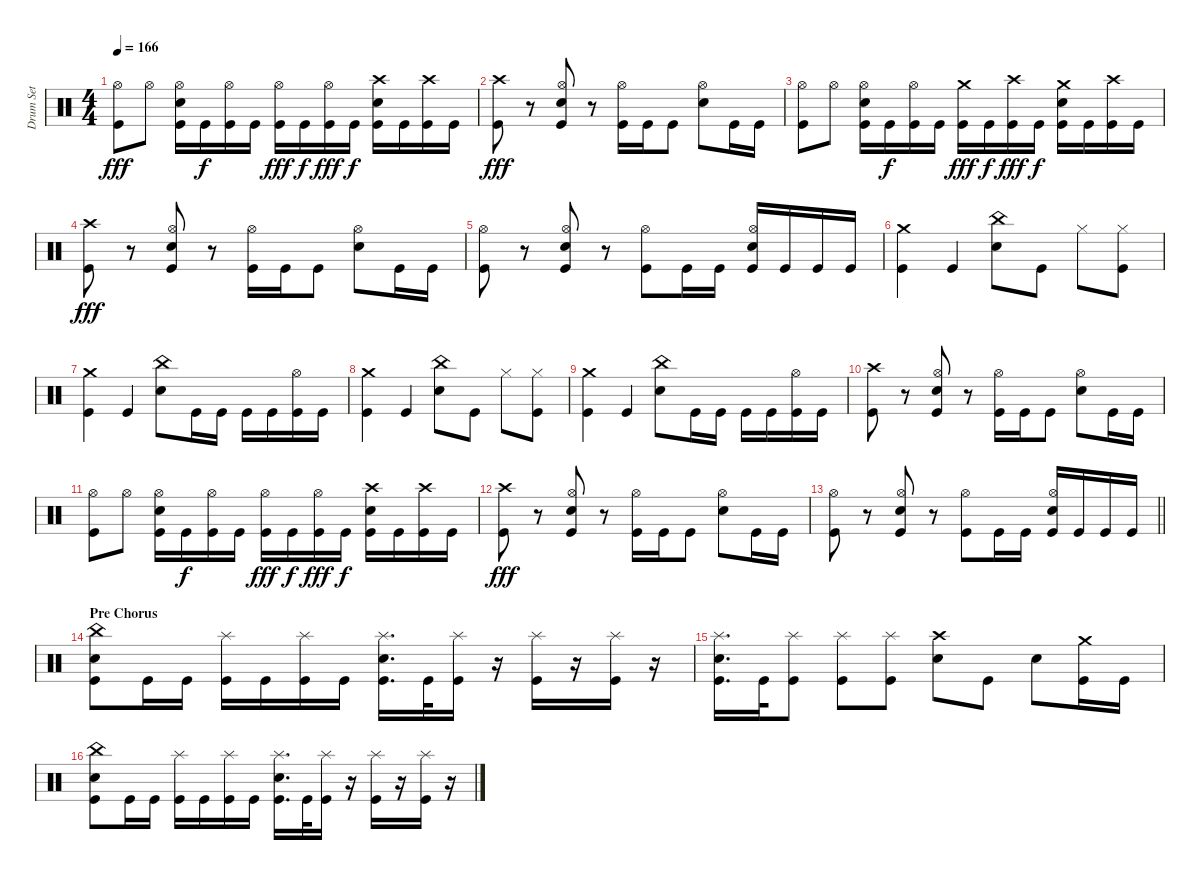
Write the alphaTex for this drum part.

\track ("Drum Set" "Drum Set") {instrument percussion}
\staff {score}
\articulation defaults
\ts (4 4)
\tempo 166
\clef neutral
\ks c
("Kick (hit)" "Hi-Hat (open)").8{dy fff} "Hi-Hat (open)".8 ("Electric Snare (hit)" "Kick (hit)" "Hi-Hat (open)").16 "Kick (hit)".16{dy f} ("Kick (hit)" "Hi-Hat (open)").16 "Kick (hit)".16 ("Kick (hit)" "Hi-Hat (open)").16{dy fff} "Kick (hit)".16{dy f} ("Kick (hit)" "Hi-Hat (open)").16{dy fff} "Kick (hit)".16{dy f} ("Electric Snare (hit)" "Kick (hit)" "Crash high (hit)").16 "Kick (hit)".16 ("Kick (hit)" "Crash high (hit)").16 "Kick (hit)".16 |
("Kick (hit)" "Crash high (hit)").8{dy fff} r.8 ("Electric Snare (hit)" "Kick (hit)" "Hi-Hat (open)").8 r.8 ("Kick (hit)" "Hi-Hat (open)").16 "Kick (hit)".16 "Kick (hit)".8 ("Electric Snare (hit)" "Hi-Hat (open)").8 "Kick (hit)".16 "Kick (hit)".16 |
("Kick (hit)" "Hi-Hat (open)").8 "Hi-Hat (open)".8 ("Electric Snare (hit)" "Kick (hit)" "Hi-Hat (open)").16 "Kick (hit)".16{dy f} ("Kick (hit)" "Hi-Hat (open)").16 "Kick (hit)".16 ("Kick (hit)" "Crash medium (hit)").16{dy fff} "Kick (hit)".16{dy f} ("Kick (hit)" "Crash high (hit)").16{dy fff} "Kick (hit)".16{dy f} ("Electric Snare (hit)" "Kick (hit)" "Crash medium (hit)").16 "Kick (hit)".16 ("Kick (hit)" "Crash high (hit)").16 "Kick (hit)".16 |
("Kick (hit)" "Crash high (hit)").8{dy fff} r.8 ("Electric Snare (hit)" "Kick (hit)" "Hi-Hat (open)").8 r.8 ("Kick (hit)" "Hi-Hat (open)").16 "Kick (hit)".16 "Kick (hit)".8 ("Electric Snare (hit)" "Hi-Hat (open)").8 "Kick (hit)".16 "Kick (hit)".16 |
("Kick (hit)" "Hi-Hat (open)").8 r.8 ("Electric Snare (hit)" "Kick (hit)" "Hi-Hat (open)").8 r.8 ("Kick (hit)" "Hi-Hat (open)").8 "Kick (hit)".16 "Kick (hit)".16 ("Electric Snare (hit)" "Kick (hit)" "Hi-Hat (open)").16 "Kick (hit)".16 "Kick (hit)".16 "Kick (hit)".16 |
("Kick (hit)" "Crash medium (hit)").4 "Kick (hit)".4 ("Electric Snare (hit)" "China (hit)").8 "Kick (hit)".8 "Hi-Hat (closed)".8 ("Kick (hit)" "Hi-Hat (closed)").8 |
("Kick (hit)" "Crash medium (hit)").4 "Kick (hit)".4 ("Electric Snare (hit)" "China (hit)").8 "Kick (hit)".16 "Kick (hit)".16 "Kick (hit)".16 "Kick (hit)".16 ("Kick (hit)" "Hi-Hat (open)").16 "Kick (hit)".16 |
("Kick (hit)" "Crash medium (hit)").4 "Kick (hit)".4 ("Electric Snare (hit)" "China (hit)").8 "Kick (hit)".8 "Hi-Hat (closed)".8 ("Kick (hit)" "Hi-Hat (closed)").8 |
("Kick (hit)" "Crash medium (hit)").4 "Kick (hit)".4 ("Electric Snare (hit)" "China (hit)").8 "Kick (hit)".16 "Kick (hit)".16 "Kick (hit)".16 "Kick (hit)".16 ("Kick (hit)" "Hi-Hat (open)").16 "Kick (hit)".16 |
("Kick (hit)" "Crash high (hit)").8 r.8 ("Electric Snare (hit)" "Kick (hit)" "Hi-Hat (open)").8 r.8 ("Kick (hit)" "Hi-Hat (open)").16 "Kick (hit)".16 "Kick (hit)".8 ("Electric Snare (hit)" "Hi-Hat (open)").8 "Kick (hit)".16 "Kick (hit)".16 |
("Kick (hit)" "Hi-Hat (open)").8 "Hi-Hat (open)".8 ("Electric Snare (hit)" "Kick (hit)" "Hi-Hat (open)").16 "Kick (hit)".16{dy f} ("Kick (hit)" "Hi-Hat (open)").16 "Kick (hit)".16 ("Kick (hit)" "Hi-Hat (open)").16{dy fff} "Kick (hit)".16{dy f} ("Kick (hit)" "Hi-Hat (open)").16{dy fff} "Kick (hit)".16{dy f} ("Electric Snare (hit)" "Kick (hit)" "Crash high (hit)").16 "Kick (hit)".16 ("Kick (hit)" "Crash high (hit)").16 "Kick (hit)".16 |
("Kick (hit)" "Crash high (hit)").8{dy fff} r.8 ("Electric Snare (hit)" "Kick (hit)" "Hi-Hat (open)").8 r.8 ("Kick (hit)" "Hi-Hat (open)").16 "Kick (hit)".16 "Kick (hit)".8 ("Electric Snare (hit)" "Hi-Hat (open)").8 "Kick (hit)".16 "Kick (hit)".16 |
\barLineRight lightlight
("Kick (hit)" "Hi-Hat (open)").8 r.8 ("Electric Snare (hit)" "Kick (hit)" "Hi-Hat (open)").8 r.8 ("Kick (hit)" "Hi-Hat (open)").8 "Kick (hit)".16 "Kick (hit)".16 ("Electric Snare (hit)" "Kick (hit)" "Hi-Hat (open)").16 "Kick (hit)".16 "Kick (hit)".16 "Kick (hit)".16 |
\section ("" "Pre Chorus")
("Electric Snare (hit)" "Kick (hit)" "China (hit)").8 "Kick (hit)".16 "Kick (hit)".16 ("Kick (hit)" "Splash (hit)").16 "Kick (hit)".16 ("Kick (hit)" "Splash (hit)").16 "Kick (hit)".16 ("Electric Snare (hit)" "Kick (hit)" "Splash (hit)").16{d} "Kick (hit)".32 ("Kick (hit)" "Splash (hit)").16 r.16 ("Kick (hit)" "Splash (hit)").16 r.16 ("Kick (hit)" "Splash (hit)").16 r.16 |
("Electric Snare (hit)" "Kick (hit)" "Splash (hit)").16{d} "Kick (hit)".32 ("Kick (hit)" "Splash (hit)").8 ("Kick (hit)" "Splash (hit)").8 ("Kick (hit)" "Splash (hit)").8 ("Electric Snare (hit)" "Crash high (hit)").8 "Kick (hit)".8 "Electric Snare (hit)".8 ("Kick (hit)" "Crash medium (hit)").16 "Kick (hit)".16 |
("Electric Snare (hit)" "Kick (hit)" "China (hit)").8 "Kick (hit)".16 "Kick (hit)".16 ("Kick (hit)" "Splash (hit)").16 "Kick (hit)".16 ("Kick (hit)" "Splash (hit)").16 "Kick (hit)".16 ("Electric Snare (hit)" "Kick (hit)" "Splash (hit)").16{d} "Kick (hit)".32 ("Kick (hit)" "Splash (hit)").16 r.16 ("Kick (hit)" "Splash (hit)").16 r.16 ("Kick (hit)" "Splash (hit)").16 r.16
